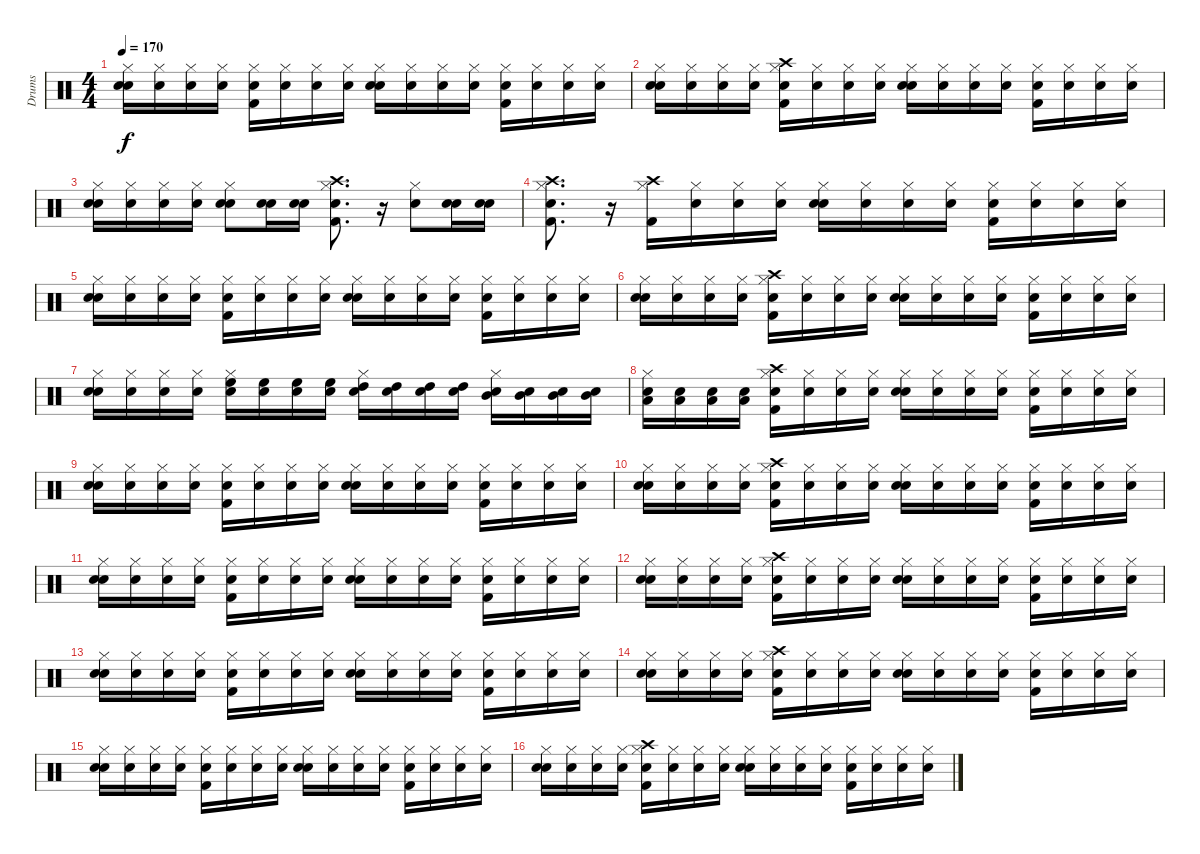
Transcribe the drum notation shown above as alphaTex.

\track ("Drums" "Drums") {instrument percussion}
\staff {score}
\articulation defaults
\ts (4 4)
\tempo 170
\clef neutral
\ks c
("Snare (hit)" "Snare (hit) 2" "Hi-Hat (closed)").16{dy f} ("Snare (hit)" "Hi-Hat (closed)").16 ("Snare (hit)" "Hi-Hat (closed)").16 ("Snare (hit)" "Hi-Hat (closed)").16 ("Snare (hit)" "Kick (hit) 2" "Hi-Hat (closed)").16 ("Snare (hit)" "Hi-Hat (closed)").16 ("Snare (hit)" "Hi-Hat (closed)").16 ("Snare (hit)" "Hi-Hat (closed)").16 ("Snare (hit)" "Snare (hit) 2" "Hi-Hat (closed)").16 ("Snare (hit)" "Hi-Hat (closed)").16 ("Snare (hit)" "Hi-Hat (closed)").16 ("Snare (hit)" "Hi-Hat (closed)").16 ("Snare (hit)" "Kick (hit) 2" "Hi-Hat (closed)").16 ("Snare (hit)" "Hi-Hat (closed)").16 ("Snare (hit)" "Hi-Hat (closed)").16 ("Snare (hit)" "Hi-Hat (closed)").16 |
("Snare (hit)" "Snare (hit) 2" "Hi-Hat (closed)").16 ("Snare (hit)" "Hi-Hat (closed)").16 ("Snare (hit)" "Hi-Hat (closed)").16 ("Snare (hit)" "Hi-Hat (closed)").16 ("Snare (hit)" "Kick (hit) 2" "Hi-Hat (closed)" "Crash high (hit)").16 ("Snare (hit)" "Hi-Hat (closed)").16 ("Snare (hit)" "Hi-Hat (closed)").16 ("Snare (hit)" "Hi-Hat (closed)").16 ("Snare (hit)" "Snare (hit) 2" "Hi-Hat (closed)").16 ("Snare (hit)" "Hi-Hat (closed)").16 ("Snare (hit)" "Hi-Hat (closed)").16 ("Snare (hit)" "Hi-Hat (closed)").16 ("Snare (hit)" "Kick (hit) 2" "Hi-Hat (closed)").16 ("Snare (hit)" "Hi-Hat (closed)").16 ("Snare (hit)" "Hi-Hat (closed)").16 ("Snare (hit)" "Hi-Hat (closed)").16 |
("Snare (hit)" "Snare (hit) 2" "Hi-Hat (closed)").16 ("Snare (hit)" "Hi-Hat (closed)").16 ("Snare (hit)" "Hi-Hat (closed)").16 ("Snare (hit)" "Hi-Hat (closed)").16 ("Snare (hit)" "Snare (hit) 2" "Hi-Hat (closed)").8 ("Snare (hit)" "Snare (hit) 2").16 ("Snare (hit)" "Snare (hit) 2").16 ("Snare (hit)" "Kick (hit) 2" "Hi-Hat (closed)" "Crash high (hit)").8{d} r.16 ("Snare (hit) 2" "Hi-Hat (closed)").8 ("Snare (hit)" "Snare (hit) 2").16 ("Snare (hit)" "Snare (hit) 2").16 |
("Snare (hit)" "Kick (hit) 2" "Hi-Hat (closed)" "Crash high (hit)").8{d} r.16 ("Kick (hit) 2" "Hi-Hat (closed)" "Crash high (hit)").16 ("Snare (hit)" "Hi-Hat (closed)").16 ("Snare (hit)" "Hi-Hat (closed)").16 ("Snare (hit)" "Hi-Hat (closed)").16 ("Snare (hit)" "Snare (hit) 2" "Hi-Hat (closed)").16 ("Snare (hit)" "Hi-Hat (closed)").16 ("Snare (hit)" "Hi-Hat (closed)").16 ("Snare (hit)" "Hi-Hat (closed)").16 ("Snare (hit)" "Kick (hit) 2" "Hi-Hat (closed)").16 ("Snare (hit)" "Hi-Hat (closed)").16 ("Snare (hit)" "Hi-Hat (closed)").16 ("Snare (hit)" "Hi-Hat (closed)").16 |
("Snare (hit)" "Snare (hit) 2" "Hi-Hat (closed)").16 ("Snare (hit)" "Hi-Hat (closed)").16 ("Snare (hit)" "Hi-Hat (closed)").16 ("Snare (hit)" "Hi-Hat (closed)").16 ("Snare (hit)" "Kick (hit) 2" "Hi-Hat (closed)").16 ("Snare (hit)" "Hi-Hat (closed)").16 ("Snare (hit)" "Hi-Hat (closed)").16 ("Snare (hit)" "Hi-Hat (closed)").16 ("Snare (hit)" "Snare (hit) 2" "Hi-Hat (closed)").16 ("Snare (hit)" "Hi-Hat (closed)").16 ("Snare (hit)" "Hi-Hat (closed)").16 ("Snare (hit)" "Hi-Hat (closed)").16 ("Snare (hit)" "Kick (hit) 2" "Hi-Hat (closed)").16 ("Snare (hit)" "Hi-Hat (closed)").16 ("Snare (hit)" "Hi-Hat (closed)").16 ("Snare (hit)" "Hi-Hat (closed)").16 |
("Snare (hit)" "Snare (hit) 2" "Hi-Hat (closed)").16 ("Snare (hit)" "Hi-Hat (closed)").16 ("Snare (hit)" "Hi-Hat (closed)").16 ("Snare (hit)" "Hi-Hat (closed)").16 ("Snare (hit)" "Kick (hit) 2" "Hi-Hat (closed)" "Crash high (hit)").16 ("Snare (hit)" "Hi-Hat (closed)").16 ("Snare (hit)" "Hi-Hat (closed)").16 ("Snare (hit)" "Hi-Hat (closed)").16 ("Snare (hit)" "Snare (hit) 2" "Hi-Hat (closed)").16 ("Snare (hit)" "Hi-Hat (closed)").16 ("Snare (hit)" "Hi-Hat (closed)").16 ("Snare (hit)" "Hi-Hat (closed)").16 ("Snare (hit)" "Kick (hit) 2" "Hi-Hat (closed)").16 ("Snare (hit)" "Hi-Hat (closed)").16 ("Snare (hit)" "Hi-Hat (closed)").16 ("Snare (hit)" "Hi-Hat (closed)").16 |
("Snare (hit)" "Snare (hit) 2" "Hi-Hat (closed)").16 ("Snare (hit)" "Hi-Hat (closed)").16 ("Snare (hit)" "Hi-Hat (closed)").16 ("Snare (hit)" "Hi-Hat (closed)").16 ("Snare (hit)" "Hi-Hat (closed)" "High Floor Tom (hit)").16 ("Snare (hit)" "High Floor Tom (hit)").16 ("Snare (hit)" "High Floor Tom (hit)").16 ("Snare (hit)" "High Floor Tom (hit)").16 ("Snare (hit)" "Hi-Hat (closed)" "High Tom (hit)").16 ("Snare (hit)" "High Tom (hit)").16 ("Snare (hit)" "High Tom (hit)").16 ("Snare (hit)" "High Tom (hit)").16 ("Snare (hit)" "Hi-Hat (closed)" "Mid Tom (hit)").16 ("Snare (hit)" "Mid Tom (hit)").16 ("Snare (hit)" "Mid Tom (hit)").16 ("Snare (hit)" "Mid Tom (hit)").16 |
("Snare (hit)" "Hi-Hat (closed)" "Low Tom (hit)").16 ("Snare (hit)" "Low Tom (hit)").16 ("Snare (hit)" "Low Tom (hit)").16 ("Snare (hit)" "Low Tom (hit)").16 ("Snare (hit)" "Kick (hit) 2" "Hi-Hat (closed)" "Crash high (hit)").16 ("Snare (hit)" "Hi-Hat (closed)").16 ("Snare (hit)" "Hi-Hat (closed)").16 ("Snare (hit)" "Hi-Hat (closed)").16 ("Snare (hit)" "Snare (hit) 2" "Hi-Hat (closed)").16 ("Snare (hit)" "Hi-Hat (closed)").16 ("Snare (hit)" "Hi-Hat (closed)").16 ("Snare (hit)" "Hi-Hat (closed)").16 ("Snare (hit)" "Kick (hit) 2" "Hi-Hat (closed)").16 ("Snare (hit)" "Hi-Hat (closed)").16 ("Snare (hit)" "Hi-Hat (closed)").16 ("Snare (hit)" "Hi-Hat (closed)").16 |
("Snare (hit)" "Snare (hit) 2" "Hi-Hat (closed)").16 ("Snare (hit)" "Hi-Hat (closed)").16 ("Snare (hit)" "Hi-Hat (closed)").16 ("Snare (hit)" "Hi-Hat (closed)").16 ("Snare (hit)" "Kick (hit) 2" "Hi-Hat (closed)").16 ("Snare (hit)" "Hi-Hat (closed)").16 ("Snare (hit)" "Hi-Hat (closed)").16 ("Snare (hit)" "Hi-Hat (closed)").16 ("Snare (hit)" "Snare (hit) 2" "Hi-Hat (closed)").16 ("Snare (hit)" "Hi-Hat (closed)").16 ("Snare (hit)" "Hi-Hat (closed)").16 ("Snare (hit)" "Hi-Hat (closed)").16 ("Snare (hit)" "Kick (hit) 2" "Hi-Hat (closed)").16 ("Snare (hit)" "Hi-Hat (closed)").16 ("Snare (hit)" "Hi-Hat (closed)").16 ("Snare (hit)" "Hi-Hat (closed)").16 |
("Snare (hit)" "Snare (hit) 2" "Hi-Hat (closed)").16 ("Snare (hit)" "Hi-Hat (closed)").16 ("Snare (hit)" "Hi-Hat (closed)").16 ("Snare (hit)" "Hi-Hat (closed)").16 ("Snare (hit)" "Kick (hit) 2" "Hi-Hat (closed)" "Crash high (hit)").16 ("Snare (hit)" "Hi-Hat (closed)").16 ("Snare (hit)" "Hi-Hat (closed)").16 ("Snare (hit)" "Hi-Hat (closed)").16 ("Snare (hit)" "Snare (hit) 2" "Hi-Hat (closed)").16 ("Snare (hit)" "Hi-Hat (closed)").16 ("Snare (hit)" "Hi-Hat (closed)").16 ("Snare (hit)" "Hi-Hat (closed)").16 ("Snare (hit)" "Kick (hit) 2" "Hi-Hat (closed)").16 ("Snare (hit)" "Hi-Hat (closed)").16 ("Snare (hit)" "Hi-Hat (closed)").16 ("Snare (hit)" "Hi-Hat (closed)").16 |
("Snare (hit)" "Snare (hit) 2" "Hi-Hat (closed)").16 ("Snare (hit)" "Hi-Hat (closed)").16 ("Snare (hit)" "Hi-Hat (closed)").16 ("Snare (hit)" "Hi-Hat (closed)").16 ("Snare (hit)" "Kick (hit) 2" "Hi-Hat (closed)").16 ("Snare (hit)" "Hi-Hat (closed)").16 ("Snare (hit)" "Hi-Hat (closed)").16 ("Snare (hit)" "Hi-Hat (closed)").16 ("Snare (hit)" "Snare (hit) 2" "Hi-Hat (closed)").16 ("Snare (hit)" "Hi-Hat (closed)").16 ("Snare (hit)" "Hi-Hat (closed)").16 ("Snare (hit)" "Hi-Hat (closed)").16 ("Snare (hit)" "Kick (hit) 2" "Hi-Hat (closed)").16 ("Snare (hit)" "Hi-Hat (closed)").16 ("Snare (hit)" "Hi-Hat (closed)").16 ("Snare (hit)" "Hi-Hat (closed)").16 |
("Snare (hit)" "Snare (hit) 2" "Hi-Hat (closed)").16 ("Snare (hit)" "Hi-Hat (closed)").16 ("Snare (hit)" "Hi-Hat (closed)").16 ("Snare (hit)" "Hi-Hat (closed)").16 ("Snare (hit)" "Kick (hit) 2" "Hi-Hat (closed)" "Crash high (hit)").16 ("Snare (hit)" "Hi-Hat (closed)").16 ("Snare (hit)" "Hi-Hat (closed)").16 ("Snare (hit)" "Hi-Hat (closed)").16 ("Snare (hit)" "Snare (hit) 2" "Hi-Hat (closed)").16 ("Snare (hit)" "Hi-Hat (closed)").16 ("Snare (hit)" "Hi-Hat (closed)").16 ("Snare (hit)" "Hi-Hat (closed)").16 ("Snare (hit)" "Kick (hit) 2" "Hi-Hat (closed)").16 ("Snare (hit)" "Hi-Hat (closed)").16 ("Snare (hit)" "Hi-Hat (closed)").16 ("Snare (hit)" "Hi-Hat (closed)").16 |
("Snare (hit)" "Snare (hit) 2" "Hi-Hat (closed)").16 ("Snare (hit)" "Hi-Hat (closed)").16 ("Snare (hit)" "Hi-Hat (closed)").16 ("Snare (hit)" "Hi-Hat (closed)").16 ("Snare (hit)" "Kick (hit) 2" "Hi-Hat (closed)").16 ("Snare (hit)" "Hi-Hat (closed)").16 ("Snare (hit)" "Hi-Hat (closed)").16 ("Snare (hit)" "Hi-Hat (closed)").16 ("Snare (hit)" "Snare (hit) 2" "Hi-Hat (closed)").16 ("Snare (hit)" "Hi-Hat (closed)").16 ("Snare (hit)" "Hi-Hat (closed)").16 ("Snare (hit)" "Hi-Hat (closed)").16 ("Snare (hit)" "Kick (hit) 2" "Hi-Hat (closed)").16 ("Snare (hit)" "Hi-Hat (closed)").16 ("Snare (hit)" "Hi-Hat (closed)").16 ("Snare (hit)" "Hi-Hat (closed)").16 |
("Snare (hit)" "Snare (hit) 2" "Hi-Hat (closed)").16 ("Snare (hit)" "Hi-Hat (closed)").16 ("Snare (hit)" "Hi-Hat (closed)").16 ("Snare (hit)" "Hi-Hat (closed)").16 ("Snare (hit)" "Kick (hit) 2" "Hi-Hat (closed)" "Crash high (hit)").16 ("Snare (hit)" "Hi-Hat (closed)").16 ("Snare (hit)" "Hi-Hat (closed)").16 ("Snare (hit)" "Hi-Hat (closed)").16 ("Snare (hit)" "Snare (hit) 2" "Hi-Hat (closed)").16 ("Snare (hit)" "Hi-Hat (closed)").16 ("Snare (hit)" "Hi-Hat (closed)").16 ("Snare (hit)" "Hi-Hat (closed)").16 ("Snare (hit)" "Kick (hit) 2" "Hi-Hat (closed)").16 ("Snare (hit)" "Hi-Hat (closed)").16 ("Snare (hit)" "Hi-Hat (closed)").16 ("Snare (hit)" "Hi-Hat (closed)").16 |
("Snare (hit)" "Snare (hit) 2" "Hi-Hat (closed)").16 ("Snare (hit)" "Hi-Hat (closed)").16 ("Snare (hit)" "Hi-Hat (closed)").16 ("Snare (hit)" "Hi-Hat (closed)").16 ("Snare (hit)" "Kick (hit) 2" "Hi-Hat (closed)").16 ("Snare (hit)" "Hi-Hat (closed)").16 ("Snare (hit)" "Hi-Hat (closed)").16 ("Snare (hit)" "Hi-Hat (closed)").16 ("Snare (hit)" "Snare (hit) 2" "Hi-Hat (closed)").16 ("Snare (hit)" "Hi-Hat (closed)").16 ("Snare (hit)" "Hi-Hat (closed)").16 ("Snare (hit)" "Hi-Hat (closed)").16 ("Snare (hit)" "Kick (hit) 2" "Hi-Hat (closed)").16 ("Snare (hit)" "Hi-Hat (closed)").16 ("Snare (hit)" "Hi-Hat (closed)").16 ("Snare (hit)" "Hi-Hat (closed)").16 |
("Snare (hit)" "Snare (hit) 2" "Hi-Hat (closed)").16 ("Snare (hit)" "Hi-Hat (closed)").16 ("Snare (hit)" "Hi-Hat (closed)").16 ("Snare (hit)" "Hi-Hat (closed)").16 ("Snare (hit)" "Kick (hit) 2" "Hi-Hat (closed)" "Crash high (hit)").16 ("Snare (hit)" "Hi-Hat (closed)").16 ("Snare (hit)" "Hi-Hat (closed)").16 ("Snare (hit)" "Hi-Hat (closed)").16 ("Snare (hit)" "Snare (hit) 2" "Hi-Hat (closed)").16 ("Snare (hit)" "Hi-Hat (closed)").16 ("Snare (hit)" "Hi-Hat (closed)").16 ("Snare (hit)" "Hi-Hat (closed)").16 ("Snare (hit)" "Kick (hit) 2" "Hi-Hat (closed)").16 ("Snare (hit)" "Hi-Hat (closed)").16 ("Snare (hit)" "Hi-Hat (closed)").16 ("Snare (hit)" "Hi-Hat (closed)").16
